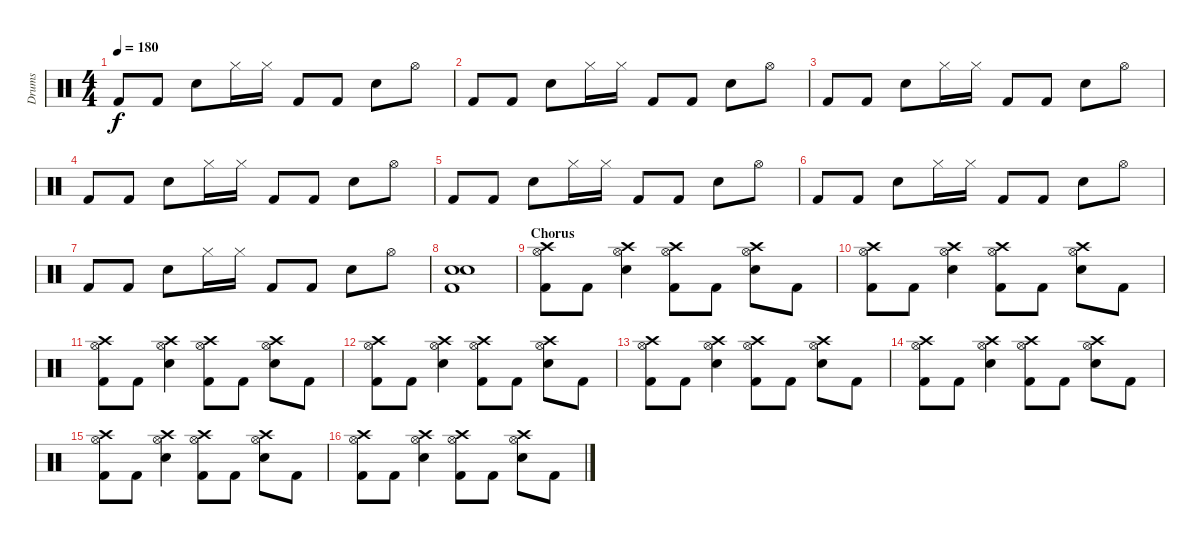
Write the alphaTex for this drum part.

\track ("Drums" "Drums") {instrument percussion}
\staff {score}
\articulation defaults
\ts (4 4)
\tempo 180
\clef neutral
\ks c "Kick (hit) 2".8{dy f} "Kick (hit) 2".8 "Snare (hit) 2".8 "Hi-Hat (closed)".16 "Hi-Hat (closed)".16 "Kick (hit) 2".8 "Kick (hit) 2".8 "Snare (hit) 2".8 "Hi-Hat (open)".8
|
"Kick (hit) 2".8 "Kick (hit) 2".8 "Snare (hit) 2".8 "Hi-Hat (closed)".16 "Hi-Hat (closed)".16 "Kick (hit) 2".8 "Kick (hit) 2".8 "Snare (hit) 2".8 "Hi-Hat (open)".8 |
"Kick (hit) 2".8 "Kick (hit) 2".8 "Snare (hit) 2".8 "Hi-Hat (closed)".16 "Hi-Hat (closed)".16 "Kick (hit) 2".8 "Kick (hit) 2".8 "Snare (hit) 2".8 "Hi-Hat (open)".8 |
"Kick (hit) 2".8 "Kick (hit) 2".8 "Snare (hit) 2".8 "Hi-Hat (closed)".16 "Hi-Hat (closed)".16 "Kick (hit) 2".8 "Kick (hit) 2".8 "Snare (hit) 2".8 "Hi-Hat (open)".8 |
"Kick (hit) 2".8 "Kick (hit) 2".8 "Snare (hit) 2".8 "Hi-Hat (closed)".16 "Hi-Hat (closed)".16 "Kick (hit) 2".8 "Kick (hit) 2".8 "Snare (hit) 2".8 "Hi-Hat (open)".8 |
"Kick (hit) 2".8 "Kick (hit) 2".8 "Snare (hit) 2".8 "Hi-Hat (closed)".16 "Hi-Hat (closed)".16 "Kick (hit) 2".8 "Kick (hit) 2".8 "Snare (hit) 2".8 "Hi-Hat (open)".8 |
"Kick (hit) 2".8 "Kick (hit) 2".8 "Snare (hit) 2".8 "Hi-Hat (closed)".16 "Hi-Hat (closed)".16 "Kick (hit) 2".8 "Kick (hit) 2".8 "Snare (hit) 2".8 "Hi-Hat (open)".8 |
("Snare (hit) 2" "Snare (hit) 2" "Kick (hit) 2").1 |
\section ("" "Chorus")
("Kick (hit) 2" "Hi-Hat (open)" "Crash high (hit)").8 "Kick (hit) 2".8 ("Snare (hit) 2" "Hi-Hat (open)" "Crash high (hit)").4 ("Hi-Hat (open)" "Crash high (hit)" "Kick (hit) 2").8 "Kick (hit) 2".8 ("Hi-Hat (open)" "Crash high (hit)" "Snare (hit) 2").8 "Kick (hit) 2".8 |
("Kick (hit) 2" "Hi-Hat (open)" "Crash high (hit)").8 "Kick (hit) 2".8 ("Snare (hit) 2" "Hi-Hat (open)" "Crash high (hit)").4 ("Hi-Hat (open)" "Crash high (hit)" "Kick (hit) 2").8 "Kick (hit) 2".8 ("Hi-Hat (open)" "Crash high (hit)" "Snare (hit) 2").8 "Kick (hit) 2".8 |
("Kick (hit) 2" "Hi-Hat (open)" "Crash high (hit)").8 "Kick (hit) 2".8 ("Snare (hit) 2" "Hi-Hat (open)" "Crash high (hit)").4 ("Hi-Hat (open)" "Crash high (hit)" "Kick (hit) 2").8 "Kick (hit) 2".8 ("Hi-Hat (open)" "Crash high (hit)" "Snare (hit) 2").8 "Kick (hit) 2".8 |
("Kick (hit) 2" "Hi-Hat (open)" "Crash high (hit)").8 "Kick (hit) 2".8 ("Snare (hit) 2" "Hi-Hat (open)" "Crash high (hit)").4 ("Hi-Hat (open)" "Crash high (hit)" "Kick (hit) 2").8 "Kick (hit) 2".8 ("Hi-Hat (open)" "Crash high (hit)" "Snare (hit) 2").8 "Kick (hit) 2".8 |
("Kick (hit) 2" "Hi-Hat (open)" "Crash high (hit)").8 "Kick (hit) 2".8 ("Snare (hit) 2" "Hi-Hat (open)" "Crash high (hit)").4 ("Hi-Hat (open)" "Crash high (hit)" "Kick (hit) 2").8 "Kick (hit) 2".8 ("Hi-Hat (open)" "Crash high (hit)" "Snare (hit) 2").8 "Kick (hit) 2".8 |
("Kick (hit) 2" "Hi-Hat (open)" "Crash high (hit)").8 "Kick (hit) 2".8 ("Snare (hit) 2" "Hi-Hat (open)" "Crash high (hit)").4 ("Hi-Hat (open)" "Crash high (hit)" "Kick (hit) 2").8 "Kick (hit) 2".8 ("Hi-Hat (open)" "Crash high (hit)" "Snare (hit) 2").8 "Kick (hit) 2".8 |
("Kick (hit) 2" "Hi-Hat (open)" "Crash high (hit)").8 "Kick (hit) 2".8 ("Snare (hit) 2" "Hi-Hat (open)" "Crash high (hit)").4 ("Hi-Hat (open)" "Crash high (hit)" "Kick (hit) 2").8 "Kick (hit) 2".8 ("Hi-Hat (open)" "Crash high (hit)" "Snare (hit) 2").8 "Kick (hit) 2".8 |
("Kick (hit) 2" "Hi-Hat (open)" "Crash high (hit)").8 "Kick (hit) 2".8 ("Snare (hit) 2" "Hi-Hat (open)" "Crash high (hit)").4 ("Hi-Hat (open)" "Crash high (hit)" "Kick (hit) 2").8 "Kick (hit) 2".8 ("Hi-Hat (open)" "Crash high (hit)" "Snare (hit) 2").8 "Kick (hit) 2".8
